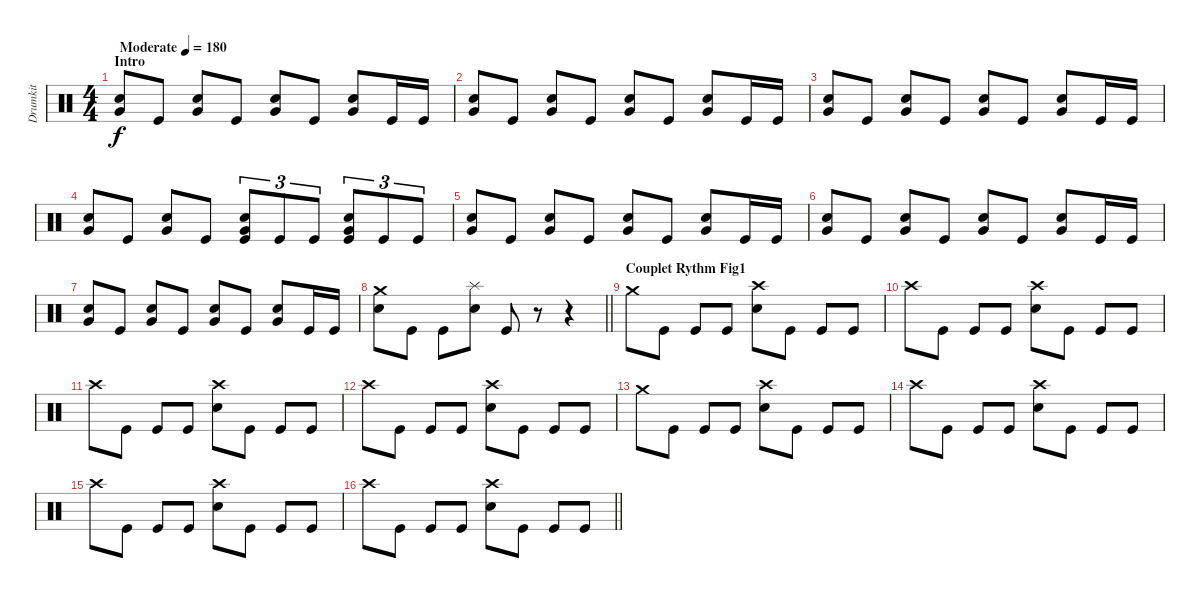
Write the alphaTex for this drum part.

\track ("Drumkit" "Drumkit") {instrument percussion}
\staff {score}
\articulation defaults
\ts (4 4)
\section ("" "Intro")
\tempo (180 "Moderate")
\clef neutral
\ks c
("Snare (hit) 2" "Very Low Tom (hit)").8{dy f} "Kick (hit)".8 ("Snare (hit) 2" "Very Low Tom (hit)").8 "Kick (hit)".8 ("Snare (hit) 2" "Very Low Tom (hit)").8 "Kick (hit)".8 ("Snare (hit) 2" "Very Low Tom (hit)").8 "Kick (hit)".16 "Kick (hit)".16 |
("Snare (hit) 2" "Very Low Tom (hit)").8 "Kick (hit)".8 ("Snare (hit) 2" "Very Low Tom (hit)").8 "Kick (hit)".8 ("Snare (hit) 2" "Very Low Tom (hit)").8 "Kick (hit)".8 ("Snare (hit) 2" "Very Low Tom (hit)").8 "Kick (hit)".16 "Kick (hit)".16 |
("Snare (hit) 2" "Very Low Tom (hit)").8 "Kick (hit)".8 ("Snare (hit) 2" "Very Low Tom (hit)").8 "Kick (hit)".8 ("Snare (hit) 2" "Very Low Tom (hit)").8 "Kick (hit)".8 ("Snare (hit) 2" "Very Low Tom (hit)").8 "Kick (hit)".16 "Kick (hit)".16 |
("Snare (hit) 2" "Very Low Tom (hit)").8 "Kick (hit)".8 ("Snare (hit) 2" "Very Low Tom (hit)").8 "Kick (hit)".8 ("Snare (hit) 2" "Very Low Tom (hit)" "Kick (hit)").8{tu (3 2)} "Kick (hit)".8{tu (3 2)} "Kick (hit)".8{tu (3 2)} ("Snare (hit) 2" "Very Low Tom (hit)" "Kick (hit)").8{tu (3 2)} "Kick (hit)".8{tu (3 2)} "Kick (hit)".8{tu (3 2)} |
("Snare (hit) 2" "Very Low Tom (hit)").8 "Kick (hit)".8 ("Snare (hit) 2" "Very Low Tom (hit)").8 "Kick (hit)".8 ("Snare (hit) 2" "Very Low Tom (hit)").8 "Kick (hit)".8 ("Snare (hit) 2" "Very Low Tom (hit)").8 "Kick (hit)".16 "Kick (hit)".16 |
("Snare (hit) 2" "Very Low Tom (hit)").8 "Kick (hit)".8 ("Snare (hit) 2" "Very Low Tom (hit)").8 "Kick (hit)".8 ("Snare (hit) 2" "Very Low Tom (hit)").8 "Kick (hit)".8 ("Snare (hit) 2" "Very Low Tom (hit)").8 "Kick (hit)".16 "Kick (hit)".16 |
("Snare (hit) 2" "Very Low Tom (hit)").8 "Kick (hit)".8 ("Snare (hit) 2" "Very Low Tom (hit)").8 "Kick (hit)".8 ("Snare (hit) 2" "Very Low Tom (hit)").8 "Kick (hit)".8 ("Snare (hit) 2" "Very Low Tom (hit)").8 "Kick (hit)".16 "Kick (hit)".16 |
\barLineRight lightlight
("Crash medium (hit)" "Snare (hit) 2").8 "Kick (hit)".8 "Kick (hit)".8 ("Splash (hit)" "Snare (hit) 2").8 "Kick (hit)".8 r.8 r.4 |
\section ("" "Couplet Rythm Fig1")
"Crash medium (hit)".8 "Kick (hit)".8 "Kick (hit)".8 "Kick (hit)".8 ("Crash high (hit)" "Snare (hit) 2").8 "Kick (hit)".8 "Kick (hit)".8 "Kick (hit)".8 |
"Crash high (hit)".8 "Kick (hit)".8 "Kick (hit)".8 "Kick (hit)".8 ("Crash high (hit)" "Snare (hit) 2").8 "Kick (hit)".8 "Kick (hit)".8 "Kick (hit)".8 |
"Crash high (hit)".8 "Kick (hit)".8 "Kick (hit)".8 "Kick (hit)".8 ("Crash high (hit)" "Snare (hit) 2").8 "Kick (hit)".8 "Kick (hit)".8 "Kick (hit)".8 |
"Crash high (hit)".8 "Kick (hit)".8 "Kick (hit)".8 "Kick (hit)".8 ("Crash high (hit)" "Snare (hit) 2").8 "Kick (hit)".8 "Kick (hit)".8 "Kick (hit)".8 |
"Crash medium (hit)".8 "Kick (hit)".8 "Kick (hit)".8 "Kick (hit)".8 ("Crash high (hit)" "Snare (hit) 2").8 "Kick (hit)".8 "Kick (hit)".8 "Kick (hit)".8 |
"Crash high (hit)".8 "Kick (hit)".8 "Kick (hit)".8 "Kick (hit)".8 ("Crash high (hit)" "Snare (hit) 2").8 "Kick (hit)".8 "Kick (hit)".8 "Kick (hit)".8 |
"Crash high (hit)".8 "Kick (hit)".8 "Kick (hit)".8 "Kick (hit)".8 ("Crash high (hit)" "Snare (hit) 2").8 "Kick (hit)".8 "Kick (hit)".8 "Kick (hit)".8 |
\barLineRight lightlight "Crash high (hit)".8 "Kick (hit)".8 "Kick (hit)".8 "Kick (hit)".8
("Crash high (hit)" "Snare (hit) 2").8 "Kick (hit)".8 "Kick (hit)".8 "Kick (hit)".8
